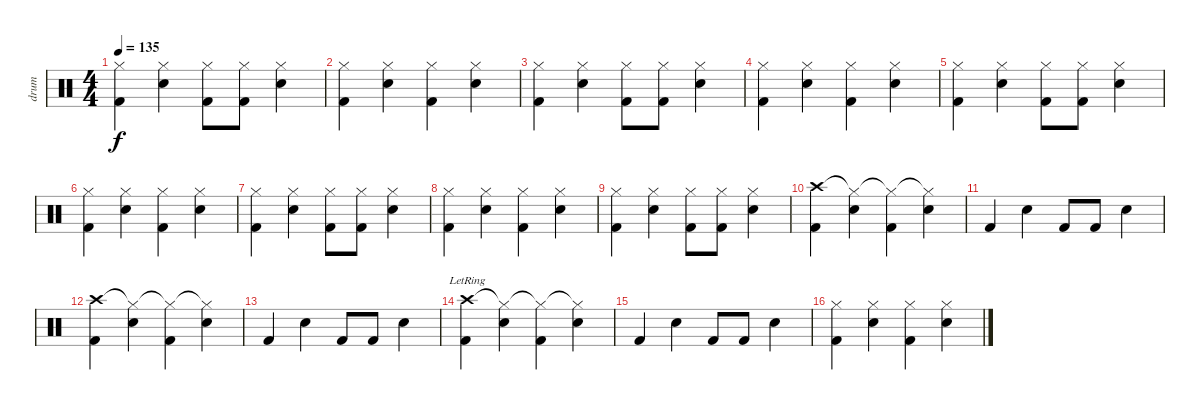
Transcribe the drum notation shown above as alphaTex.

\track ("drum" "drum") {instrument percussion}
\staff {score}
\articulation defaults
\ts (4 4)
\tempo 135
\clef neutral
\ks c
("Hi-Hat (closed)" "Kick (hit) 2").4{dy f} ("Hi-Hat (closed)" "Snare (hit) 2").4 ("Hi-Hat (closed)" "Kick (hit) 2").8 ("Hi-Hat (closed)" "Kick (hit) 2").8 ("Hi-Hat (closed)" "Snare (hit) 2").4 |
("Hi-Hat (closed)" "Kick (hit) 2").4 ("Hi-Hat (closed)" "Snare (hit) 2").4 ("Hi-Hat (closed)" "Kick (hit) 2").4 ("Hi-Hat (closed)" "Snare (hit) 2").4 |
("Hi-Hat (closed)" "Kick (hit) 2").4 ("Hi-Hat (closed)" "Snare (hit) 2").4 ("Hi-Hat (closed)" "Kick (hit) 2").8 ("Hi-Hat (closed)" "Kick (hit) 2").8 ("Hi-Hat (closed)" "Snare (hit) 2").4 |
("Hi-Hat (closed)" "Kick (hit) 2").4 ("Hi-Hat (closed)" "Snare (hit) 2").4 ("Hi-Hat (closed)" "Kick (hit) 2").4 ("Hi-Hat (closed)" "Snare (hit) 2").4 |
("Hi-Hat (closed)" "Kick (hit) 2").4 ("Hi-Hat (closed)" "Snare (hit) 2").4 ("Hi-Hat (closed)" "Kick (hit) 2").8 ("Hi-Hat (closed)" "Kick (hit) 2").8 ("Hi-Hat (closed)" "Snare (hit) 2").4 |
("Hi-Hat (closed)" "Kick (hit) 2").4 ("Hi-Hat (closed)" "Snare (hit) 2").4 ("Hi-Hat (closed)" "Kick (hit) 2").4 ("Hi-Hat (closed)" "Snare (hit) 2").4 |
("Hi-Hat (closed)" "Kick (hit) 2").4 ("Hi-Hat (closed)" "Snare (hit) 2").4 ("Hi-Hat (closed)" "Kick (hit) 2").8 ("Hi-Hat (closed)" "Kick (hit) 2").8 ("Hi-Hat (closed)" "Snare (hit) 2").4 |
("Hi-Hat (closed)" "Kick (hit) 2").4 ("Hi-Hat (closed)" "Snare (hit) 2").4 ("Hi-Hat (closed)" "Kick (hit) 2").4 ("Hi-Hat (closed)" "Snare (hit) 2").4 |
("Hi-Hat (closed)" "Kick (hit) 2").4 ("Hi-Hat (closed)" "Snare (hit) 2").4 ("Hi-Hat (closed)" "Kick (hit) 2").8 ("Hi-Hat (closed)" "Kick (hit) 2").8 ("Hi-Hat (closed)" "Snare (hit) 2").4 |
("Crash high (hit)" "Kick (hit) 2").4 ("Hi-Hat (closed)"{t} "Snare (hit) 2").4 ("Hi-Hat (closed)"{t} "Kick (hit) 2").4 ("Hi-Hat (closed)"{t} "Snare (hit) 2").4 |
"Kick (hit) 2".4 "Snare (hit) 2".4 "Kick (hit) 2".8 "Kick (hit) 2".8 "Snare (hit) 2".4 |
("Crash high (hit)" "Kick (hit) 2").4 ("Hi-Hat (closed)"{t} "Snare (hit) 2").4 ("Hi-Hat (closed)"{t} "Kick (hit) 2").4 ("Hi-Hat (closed)"{t} "Snare (hit) 2").4 |
"Kick (hit) 2".4 "Snare (hit) 2".4 "Kick (hit) 2".8 "Kick (hit) 2".8 "Snare (hit) 2".4 |
("Crash high (hit)"{lr} "Kick (hit) 2").4 ("Hi-Hat (closed)"{t} "Snare (hit) 2").4 ("Hi-Hat (closed)"{t} "Kick (hit) 2").4 ("Hi-Hat (closed)"{t} "Snare (hit) 2").4 |
"Kick (hit) 2".4 "Snare (hit) 2".4 "Kick (hit) 2".8 "Kick (hit) 2".8 "Snare (hit) 2".4 |
("Hi-Hat (closed)" "Kick (hit) 2").4 ("Hi-Hat (closed)" "Snare (hit) 2").4 ("Hi-Hat (closed)" "Kick (hit) 2").4 ("Hi-Hat (closed)" "Snare (hit) 2").4
